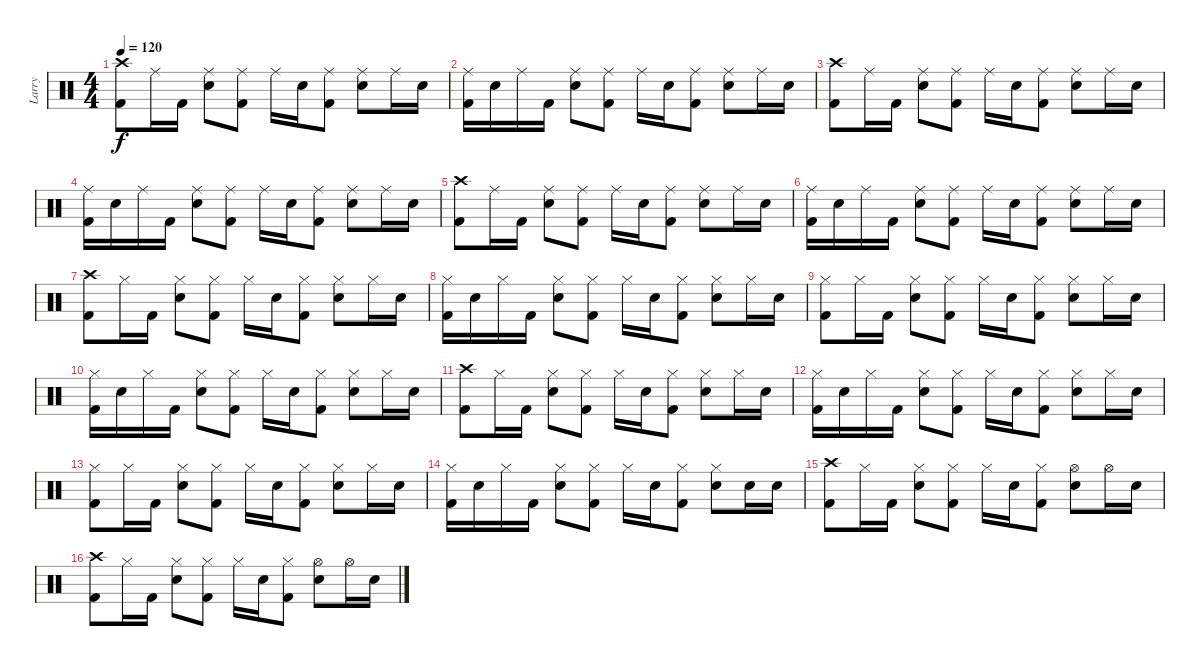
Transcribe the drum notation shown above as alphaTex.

\track ("Larry" "Larry") {instrument percussion}
\staff {score}
\articulation defaults
\ts (4 4)
\tempo 120
\clef neutral
\ks c
("Crash high (hit)" "Kick (hit) 2").8{dy f} "Ride (middle)".16 "Kick (hit) 2".16 ("Ride (middle)" "Snare (hit) 2").8 ("Ride (middle)" "Kick (hit) 2").8 "Ride (middle)".16 "Snare (hit) 2".16 ("Ride (middle)" "Kick (hit) 2").8 ("Ride (middle)" "Snare (hit) 2").8 "Ride (middle)".16 "Snare (hit) 2".16 |
("Ride (middle)" "Kick (hit) 2").16 "Snare (hit) 2".16 "Ride (middle)".16 "Kick (hit) 2".16 ("Ride (middle)" "Snare (hit) 2").8 ("Ride (middle)" "Kick (hit) 2").8 "Ride (middle)".16 "Snare (hit) 2".16 ("Ride (middle)" "Kick (hit) 2").8 ("Ride (middle)" "Snare (hit) 2").8 "Ride (middle)".16 "Snare (hit) 2".16 |
("Crash high (hit)" "Kick (hit) 2").8 "Ride (middle)".16 "Kick (hit) 2".16 ("Ride (middle)" "Snare (hit) 2").8 ("Ride (middle)" "Kick (hit) 2").8 "Ride (middle)".16 "Snare (hit) 2".16 ("Ride (middle)" "Kick (hit) 2").8 ("Ride (middle)" "Snare (hit) 2").8 "Ride (middle)".16 "Snare (hit) 2".16 |
("Ride (middle)" "Kick (hit) 2").16 "Snare (hit) 2".16 "Ride (middle)".16 "Kick (hit) 2".16 ("Ride (middle)" "Snare (hit) 2").8 ("Ride (middle)" "Kick (hit) 2").8 "Ride (middle)".16 "Snare (hit) 2".16 ("Ride (middle)" "Kick (hit) 2").8 ("Ride (middle)" "Snare (hit) 2").8 "Ride (middle)".16 "Snare (hit) 2".16 |
("Crash high (hit)" "Kick (hit) 2").8 "Ride (middle)".16 "Kick (hit) 2".16 ("Ride (middle)" "Snare (hit) 2").8 ("Ride (middle)" "Kick (hit) 2").8 "Ride (middle)".16 "Snare (hit) 2".16 ("Ride (middle)" "Kick (hit) 2").8 ("Ride (middle)" "Snare (hit) 2").8 "Ride (middle)".16 "Snare (hit) 2".16 |
("Ride (middle)" "Kick (hit) 2").16 "Snare (hit) 2".16 "Ride (middle)".16 "Kick (hit) 2".16 ("Ride (middle)" "Snare (hit) 2").8 ("Ride (middle)" "Kick (hit) 2").8 "Ride (middle)".16 "Snare (hit) 2".16 ("Ride (middle)" "Kick (hit) 2").8 ("Ride (middle)" "Snare (hit) 2").8 "Ride (middle)".16 "Snare (hit) 2".16 |
("Crash high (hit)" "Kick (hit) 2").8 "Hi-Hat (closed)".16 "Kick (hit) 2".16 ("Hi-Hat (closed)" "Snare (hit) 2").8 ("Hi-Hat (closed)" "Kick (hit) 2").8 "Hi-Hat (closed)".16 "Snare (hit) 2".16 ("Hi-Hat (closed)" "Kick (hit) 2").8 ("Hi-Hat (closed)" "Snare (hit) 2").8 "Hi-Hat (closed)".16 "Snare (hit) 2".16 |
("Hi-Hat (closed)" "Kick (hit) 2").16 "Snare (hit) 2".16 "Hi-Hat (closed)".16 "Kick (hit) 2".16 ("Hi-Hat (closed)" "Snare (hit) 2").8 ("Hi-Hat (closed)" "Kick (hit) 2").8 "Hi-Hat (closed)".16 "Snare (hit) 2".16 ("Hi-Hat (closed)" "Kick (hit) 2").8 ("Hi-Hat (closed)" "Snare (hit) 2").8 "Hi-Hat (closed)".16 "Snare (hit) 2".16 |
("Hi-Hat (closed)" "Kick (hit) 2").8 "Hi-Hat (closed)".16 "Kick (hit) 2".16 ("Hi-Hat (closed)" "Snare (hit) 2").8 ("Hi-Hat (closed)" "Kick (hit) 2").8 "Hi-Hat (closed)".16 "Snare (hit) 2".16 ("Hi-Hat (closed)" "Kick (hit) 2").8 ("Hi-Hat (closed)" "Snare (hit) 2").8 "Hi-Hat (closed)".16 "Snare (hit) 2".16 |
("Hi-Hat (closed)" "Kick (hit) 2").16 "Snare (hit) 2".16 "Hi-Hat (closed)".16 "Kick (hit) 2".16 ("Hi-Hat (closed)" "Snare (hit) 2").8 ("Hi-Hat (closed)" "Kick (hit) 2").8 "Hi-Hat (closed)".16 "Snare (hit) 2".16 ("Hi-Hat (closed)" "Kick (hit) 2").8 ("Hi-Hat (closed)" "Snare (hit) 2").8 "Hi-Hat (closed)".16 "Snare (hit) 2".16 |
("Crash high (hit)" "Kick (hit) 2").8 "Hi-Hat (closed)".16 "Kick (hit) 2".16 ("Hi-Hat (closed)" "Snare (hit) 2").8 ("Hi-Hat (closed)" "Kick (hit) 2").8 "Hi-Hat (closed)".16 "Snare (hit) 2".16 ("Hi-Hat (closed)" "Kick (hit) 2").8 ("Hi-Hat (closed)" "Snare (hit) 2").8 "Hi-Hat (closed)".16 "Snare (hit) 2".16 |
("Hi-Hat (closed)" "Kick (hit) 2").16 "Snare (hit) 2".16 "Hi-Hat (closed)".16 "Kick (hit) 2".16 ("Hi-Hat (closed)" "Snare (hit) 2").8 ("Hi-Hat (closed)" "Kick (hit) 2").8 "Hi-Hat (closed)".16 "Snare (hit) 2".16 ("Hi-Hat (closed)" "Kick (hit) 2").8 ("Hi-Hat (closed)" "Snare (hit) 2").8 "Hi-Hat (closed)".16 "Snare (hit) 2".16 |
("Hi-Hat (closed)" "Kick (hit) 2").8 "Hi-Hat (closed)".16 "Kick (hit) 2".16 ("Hi-Hat (closed)" "Snare (hit) 2").8 ("Hi-Hat (closed)" "Kick (hit) 2").8 "Hi-Hat (closed)".16 "Snare (hit) 2".16 ("Hi-Hat (closed)" "Kick (hit) 2").8 ("Hi-Hat (closed)" "Snare (hit) 2").8 "Hi-Hat (closed)".16 "Snare (hit) 2".16 |
("Hi-Hat (closed)" "Kick (hit) 2").16 "Snare (hit) 2".16 "Hi-Hat (closed)".16 "Kick (hit) 2".16 ("Hi-Hat (closed)" "Snare (hit) 2").8 ("Hi-Hat (closed)" "Kick (hit) 2").8 "Hi-Hat (closed)".16 "Snare (hit) 2".16 ("Hi-Hat (closed)" "Kick (hit) 2").8 ("Hi-Hat (closed)" "Snare (hit) 2").8 "Snare (hit) 2".16 "Snare (hit) 2".16 |
("Crash high (hit)" "Kick (hit) 2").8 "Hi-Hat (closed)".16 "Kick (hit) 2".16 ("Hi-Hat (closed)" "Snare (hit) 2").8 ("Hi-Hat (closed)" "Kick (hit) 2").8 "Hi-Hat (closed)".16 "Snare (hit) 2".16 ("Hi-Hat (closed)" "Kick (hit) 2").8 ("Hi-Hat (open)" "Snare (hit) 2").8 "Hi-Hat (open)".16 "Snare (hit) 2".16 |
("Crash high (hit)" "Kick (hit) 2").8 "Hi-Hat (closed)".16 "Kick (hit) 2".16 ("Hi-Hat (closed)" "Snare (hit) 2").8 ("Hi-Hat (closed)" "Kick (hit) 2").8 "Hi-Hat (closed)".16 "Snare (hit) 2".16 ("Hi-Hat (closed)" "Kick (hit) 2").8 ("Hi-Hat (open)" "Snare (hit) 2").8 "Hi-Hat (open)".16 "Snare (hit) 2".16
